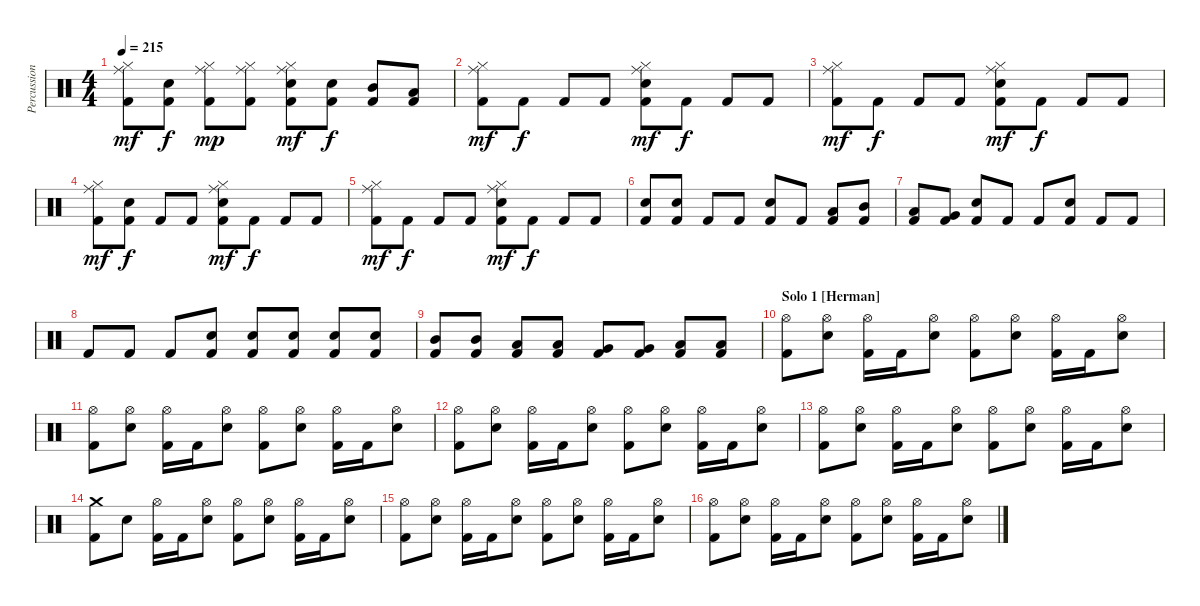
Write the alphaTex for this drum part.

\track ("Percussion" "Percussion") {instrument percussion}
\staff {score}
\articulation defaults
\ts (4 4)
\tempo 215
\clef neutral
\ks c
("Hi-Hat (closed)" "Ride (middle)" "Kick (hit) 2").8{dy mf} ("Snare (hit) 2" "Kick (hit) 2").8{dy f} ("Hi-Hat (closed)" "Ride (middle)" "Kick (hit) 2").8{dy mp} ("Hi-Hat (closed)" "Ride (middle)" "Kick (hit) 2").8 ("Hi-Hat (closed)" "Ride (middle)" "Snare (hit) 2" "Kick (hit) 2").8{dy mf} ("Snare (hit) 2" "Kick (hit) 2").8{dy f} ("Mid Tom (hit)" "Kick (hit) 2").8 ("Low Tom (hit)" "Kick (hit) 2").8 |
("Hi-Hat (closed)" "Ride (middle)" "Kick (hit) 2").8{dy mf} "Kick (hit) 2".8{dy f} "Kick (hit) 2".8 "Kick (hit) 2".8 ("Hi-Hat (closed)" "Ride (middle)" "Snare (hit) 2" "Kick (hit) 2").8{dy mf} "Kick (hit) 2".8{dy f} "Kick (hit) 2".8 "Kick (hit) 2".8 |
("Hi-Hat (closed)" "Ride (middle)" "Kick (hit) 2").8{dy mf} "Kick (hit) 2".8{dy f} "Kick (hit) 2".8 "Kick (hit) 2".8 ("Hi-Hat (closed)" "Ride (middle)" "Snare (hit) 2" "Kick (hit) 2").8{dy mf} "Kick (hit) 2".8{dy f} "Kick (hit) 2".8 "Kick (hit) 2".8 |
("Hi-Hat (closed)" "Ride (middle)" "Kick (hit) 2").8{dy mf} ("Snare (hit) 2" "Kick (hit) 2").8{dy f} "Kick (hit) 2".8 "Kick (hit) 2".8 ("Hi-Hat (closed)" "Ride (middle)" "Snare (hit) 2" "Kick (hit) 2").8{dy mf} "Kick (hit) 2".8{dy f} "Kick (hit) 2".8 "Kick (hit) 2".8 |
("Hi-Hat (closed)" "Ride (middle)" "Kick (hit) 2").8{dy mf} "Kick (hit) 2".8{dy f} "Kick (hit) 2".8 "Kick (hit) 2".8 ("Hi-Hat (closed)" "Ride (middle)" "Snare (hit) 2" "Kick (hit) 2").8{dy mf} "Kick (hit) 2".8{dy f} "Kick (hit) 2".8 "Kick (hit) 2".8 |
("Snare (hit) 2" "Kick (hit) 2").8 ("Snare (hit) 2" "Kick (hit) 2").8 "Kick (hit) 2".8 "Kick (hit) 2".8 ("Snare (hit) 2" "Kick (hit) 2").8 "Kick (hit) 2".8 ("Low Tom (hit)" "Kick (hit) 2").8 ("Mid Tom (hit)" "Kick (hit) 2").8 |
("Low Tom (hit)" "Kick (hit) 2").8 ("Very Low Tom (hit)" "Kick (hit) 2").8 ("Snare (hit) 2" "Kick (hit) 2").8 "Kick (hit) 2".8 "Kick (hit) 2".8 ("Snare (hit) 2" "Kick (hit) 2").8 "Kick (hit) 2".8 "Kick (hit) 2".8 |
"Kick (hit) 2".8 "Kick (hit) 2".8 "Kick (hit) 2".8 ("Snare (hit) 2" "Kick (hit) 2").8 ("Snare (hit) 2" "Kick (hit) 2").8 ("Snare (hit) 2" "Kick (hit) 2").8 ("Snare (hit) 2" "Kick (hit) 2").8 ("Snare (hit) 2" "Kick (hit) 2").8 |
("Mid Tom (hit)" "Kick (hit) 2").8 ("Mid Tom (hit)" "Kick (hit) 2").8 ("Low Tom (hit)" "Kick (hit) 2").8 ("Low Tom (hit)" "Kick (hit) 2").8 ("Very Low Tom (hit)" "Kick (hit) 2").8 ("Very Low Tom (hit)" "Kick (hit) 2").8 ("Low Floor Tom (hit)" "Kick (hit) 2").8 ("Low Floor Tom (hit)" "Kick (hit) 2").8 |
\section ("" "Solo 1 [Herman]")
("Hi-Hat (open)" "Kick (hit) 2").8 ("Hi-Hat (open)" "Snare (hit) 2").8 ("Hi-Hat (open)" "Kick (hit) 2").16 "Kick (hit) 2".16 ("Hi-Hat (open)" "Snare (hit) 2").8 ("Hi-Hat (open)" "Kick (hit) 2").8 ("Hi-Hat (open)" "Snare (hit) 2").8 ("Hi-Hat (open)" "Kick (hit) 2").16 "Kick (hit) 2".16 ("Hi-Hat (open)" "Snare (hit) 2").8 |
("Hi-Hat (open)" "Kick (hit) 2").8 ("Hi-Hat (open)" "Snare (hit) 2").8 ("Hi-Hat (open)" "Kick (hit) 2").16 "Kick (hit) 2".16 ("Hi-Hat (open)" "Snare (hit) 2").8 ("Hi-Hat (open)" "Kick (hit) 2").8 ("Hi-Hat (open)" "Snare (hit) 2").8 ("Hi-Hat (open)" "Kick (hit) 2").16 "Kick (hit) 2".16 ("Hi-Hat (open)" "Snare (hit) 2").8 |
("Hi-Hat (open)" "Kick (hit) 2").8 ("Hi-Hat (open)" "Snare (hit) 2").8 ("Hi-Hat (open)" "Kick (hit) 2").16 "Kick (hit) 2".16 ("Hi-Hat (open)" "Snare (hit) 2").8 ("Hi-Hat (open)" "Kick (hit) 2").8 ("Hi-Hat (open)" "Snare (hit) 2").8 ("Hi-Hat (open)" "Kick (hit) 2").16 "Kick (hit) 2".16 ("Hi-Hat (open)" "Snare (hit) 2").8 |
("Hi-Hat (open)" "Kick (hit) 2").8 ("Hi-Hat (open)" "Snare (hit) 2").8 ("Hi-Hat (open)" "Kick (hit) 2").16 "Kick (hit) 2".16 ("Hi-Hat (open)" "Snare (hit) 2").8 ("Hi-Hat (open)" "Kick (hit) 2").8 ("Hi-Hat (open)" "Snare (hit) 2").8 ("Hi-Hat (open)" "Kick (hit) 2").16 "Kick (hit) 2".16 ("Hi-Hat (open)" "Snare (hit) 2").8 |
("Crash medium (hit)" "Kick (hit) 2").8 "Snare (hit) 2".8 ("Hi-Hat (open)" "Kick (hit) 2").16 "Kick (hit) 2".16 ("Hi-Hat (open)" "Snare (hit) 2").8 ("Hi-Hat (open)" "Kick (hit) 2").8 ("Hi-Hat (open)" "Snare (hit) 2").8 ("Hi-Hat (open)" "Kick (hit) 2").16 "Kick (hit) 2".16 ("Hi-Hat (open)" "Snare (hit) 2").8 |
("Hi-Hat (open)" "Kick (hit) 2").8 ("Hi-Hat (open)" "Snare (hit) 2").8 ("Hi-Hat (open)" "Kick (hit) 2").16 "Kick (hit) 2".16 ("Hi-Hat (open)" "Snare (hit) 2").8 ("Hi-Hat (open)" "Kick (hit) 2").8 ("Hi-Hat (open)" "Snare (hit) 2").8 ("Hi-Hat (open)" "Kick (hit) 2").16 "Kick (hit) 2".16 ("Hi-Hat (open)" "Snare (hit) 2").8 |
("Hi-Hat (open)" "Kick (hit) 2").8 ("Hi-Hat (open)" "Snare (hit) 2").8 ("Hi-Hat (open)" "Kick (hit) 2").16 "Kick (hit) 2".16 ("Hi-Hat (open)" "Snare (hit) 2").8 ("Hi-Hat (open)" "Kick (hit) 2").8 ("Hi-Hat (open)" "Snare (hit) 2").8 ("Hi-Hat (open)" "Kick (hit) 2").16 "Kick (hit) 2".16 ("Hi-Hat (open)" "Snare (hit) 2").8
